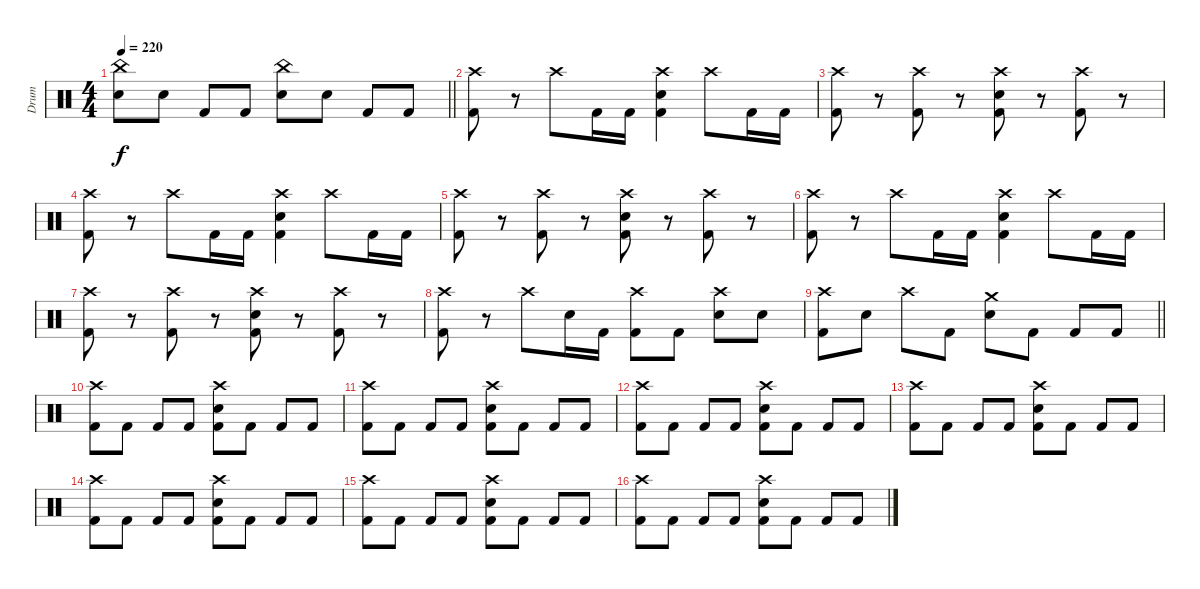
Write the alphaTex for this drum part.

\track ("Drum" "Drum") {instrument percussion}
\staff {score}
\articulation defaults
\ts (4 4)
\tempo 220
\clef neutral
\barLineRight lightlight
\ks c
("China (hit)" "Electric Snare (hit)").8{dy f} "Electric Snare (hit)".8 "Kick (hit) 2".8 "Kick (hit) 2".8 ("China (hit)" "Electric Snare (hit)").8 "Electric Snare (hit)".8 "Kick (hit) 2".8 "Kick (hit) 2".8 |
("Crash high (hit)" "Kick (hit) 2").8 r.8 "Crash high (hit)".8 "Kick (hit) 2".16 "Kick (hit) 2".16 ("Crash high (hit)" "Electric Snare (hit)" "Kick (hit) 2").4 "Crash high (hit)".8 "Kick (hit) 2".16 "Kick (hit) 2".16 |
("Crash high (hit)" "Kick (hit) 2").8 r.8 ("Crash high (hit)" "Kick (hit) 2").8 r.8 ("Crash high (hit)" "Electric Snare (hit)" "Kick (hit) 2").8 r.8 ("Crash high (hit)" "Kick (hit) 2").8 r.8 |
("Crash high (hit)" "Kick (hit) 2").8 r.8 "Crash high (hit)".8 "Kick (hit) 2".16 "Kick (hit) 2".16 ("Crash high (hit)" "Electric Snare (hit)" "Kick (hit) 2").4 "Crash high (hit)".8 "Kick (hit) 2".16 "Kick (hit) 2".16 |
("Crash high (hit)" "Kick (hit) 2").8 r.8 ("Crash high (hit)" "Kick (hit) 2").8 r.8 ("Crash high (hit)" "Electric Snare (hit)" "Kick (hit) 2").8 r.8 ("Crash high (hit)" "Kick (hit) 2").8 r.8 |
("Crash high (hit)" "Kick (hit) 2").8 r.8 "Crash high (hit)".8 "Kick (hit) 2".16 "Kick (hit) 2".16 ("Crash high (hit)" "Electric Snare (hit)" "Kick (hit) 2").4 "Crash high (hit)".8 "Kick (hit) 2".16 "Kick (hit) 2".16 |
("Crash high (hit)" "Kick (hit) 2").8 r.8 ("Crash high (hit)" "Kick (hit) 2").8 r.8 ("Crash high (hit)" "Electric Snare (hit)" "Kick (hit) 2").8 r.8 ("Crash high (hit)" "Kick (hit) 2").8 r.8 |
("Crash high (hit)" "Kick (hit) 2").8 r.8 "Crash high (hit)".8 "Electric Snare (hit)".16 "Kick (hit) 2".16 ("Crash high (hit)" "Kick (hit) 2").8 "Kick (hit) 2".8 ("Crash high (hit)" "Electric Snare (hit)").8 "Electric Snare (hit)".8 |
\barLineRight lightlight
("Crash high (hit)" "Kick (hit) 2").8 "Electric Snare (hit)".8 "Crash high (hit)".8 "Kick (hit) 2".8 ("Crash medium (hit)" "Electric Snare (hit)").8 "Kick (hit) 2".8 "Kick (hit) 2".8 "Kick (hit) 2".8 |
("Crash high (hit)" "Kick (hit) 2").8 "Kick (hit) 2".8 "Kick (hit) 2".8 "Kick (hit) 2".8 ("Crash high (hit)" "Electric Snare (hit)" "Kick (hit) 2").8 "Kick (hit) 2".8 "Kick (hit) 2".8 "Kick (hit) 2".8 |
("Crash high (hit)" "Kick (hit) 2").8 "Kick (hit) 2".8 "Kick (hit) 2".8 "Kick (hit) 2".8 ("Crash high (hit)" "Electric Snare (hit)" "Kick (hit) 2").8 "Kick (hit) 2".8 "Kick (hit) 2".8 "Kick (hit) 2".8 |
("Crash high (hit)" "Kick (hit) 2").8 "Kick (hit) 2".8 "Kick (hit) 2".8 "Kick (hit) 2".8 ("Crash high (hit)" "Electric Snare (hit)" "Kick (hit) 2").8 "Kick (hit) 2".8 "Kick (hit) 2".8 "Kick (hit) 2".8 |
("Crash high (hit)" "Kick (hit) 2").8 "Kick (hit) 2".8 "Kick (hit) 2".8 "Kick (hit) 2".8 ("Crash high (hit)" "Electric Snare (hit)" "Kick (hit) 2").8 "Kick (hit) 2".8 "Kick (hit) 2".8 "Kick (hit) 2".8 |
("Crash high (hit)" "Kick (hit) 2").8 "Kick (hit) 2".8 "Kick (hit) 2".8 "Kick (hit) 2".8 ("Crash high (hit)" "Electric Snare (hit)" "Kick (hit) 2").8 "Kick (hit) 2".8 "Kick (hit) 2".8 "Kick (hit) 2".8 |
("Crash high (hit)" "Kick (hit) 2").8 "Kick (hit) 2".8 "Kick (hit) 2".8 "Kick (hit) 2".8 ("Crash high (hit)" "Electric Snare (hit)" "Kick (hit) 2").8 "Kick (hit) 2".8 "Kick (hit) 2".8 "Kick (hit) 2".8 |
("Crash high (hit)" "Kick (hit) 2").8 "Kick (hit) 2".8 "Kick (hit) 2".8 "Kick (hit) 2".8 ("Crash high (hit)" "Electric Snare (hit)" "Kick (hit) 2").8 "Kick (hit) 2".8 "Kick (hit) 2".8 "Kick (hit) 2".8
